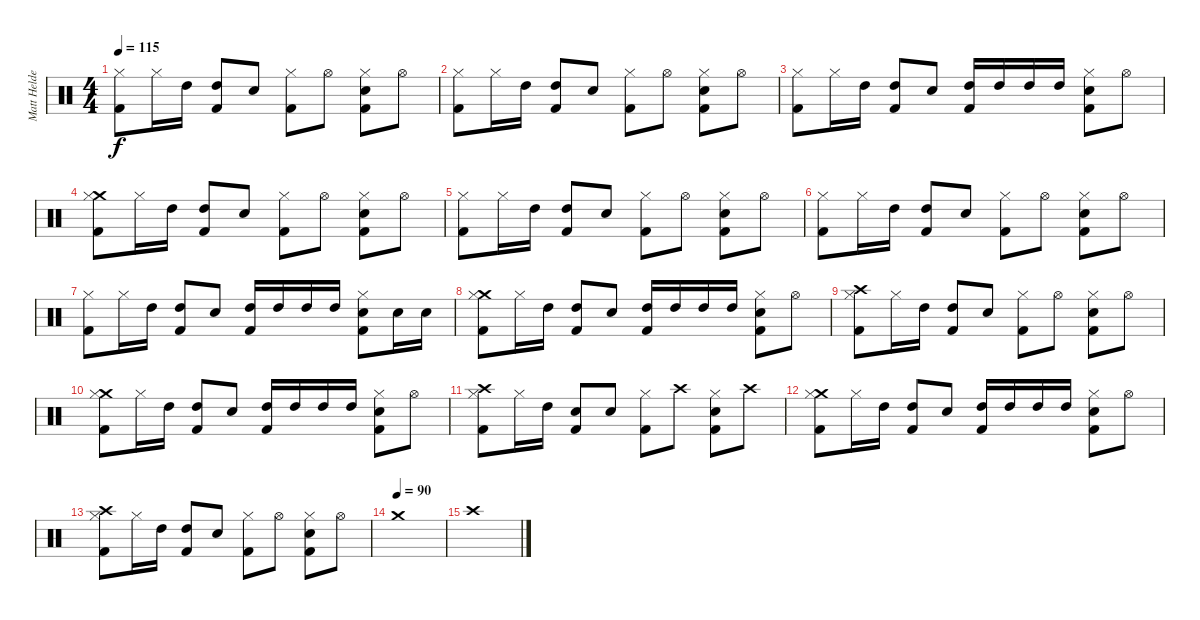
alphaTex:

\track ("Matt Helders (Percussion)" "Matt Helde") {instrument percussion}
\staff {score}
\articulation defaults
\ts (4 4)
\tempo 115
\clef neutral
\ks c
("Hi-Hat (closed)" "Kick (hit) 2").8{dy f} "Hi-Hat (closed)".16 "High Tom (hit)".16 ("High Tom (hit)" "Kick (hit) 2").8 "Snare (hit) 2".8 ("Hi-Hat (closed)" "Kick (hit) 2").8 "Hi-Hat (open)".8 ("Hi-Hat (closed)" "Snare (hit) 2" "Kick (hit) 2").8 "Hi-Hat (open)".8 |
("Hi-Hat (closed)" "Kick (hit) 2").8 "Hi-Hat (closed)".16 "High Tom (hit)".16 ("High Tom (hit)" "Kick (hit) 2").8 "Snare (hit) 2".8 ("Hi-Hat (closed)" "Kick (hit) 2").8 "Hi-Hat (open)".8 ("Hi-Hat (closed)" "Snare (hit) 2" "Kick (hit) 2").8 "Hi-Hat (open)".8 |
("Hi-Hat (closed)" "Kick (hit) 2").8 "Hi-Hat (closed)".16 "High Tom (hit)".16 ("High Tom (hit)" "Kick (hit) 2").8 "Snare (hit) 2".8 ("High Tom (hit)" "Kick (hit) 2").16 "High Tom (hit)".16 "High Tom (hit)".16 "High Tom (hit)".16 ("Hi-Hat (closed)" "Snare (hit) 2" "Kick (hit) 2").8 "Hi-Hat (open)".8 |
("Crash medium (hit)" "Hi-Hat (closed)" "Kick (hit) 2").8 "Hi-Hat (closed)".16 "High Tom (hit)".16 ("High Tom (hit)" "Kick (hit) 2").8 "Snare (hit) 2".8 ("Hi-Hat (closed)" "Kick (hit) 2").8 "Hi-Hat (open)".8 ("Hi-Hat (closed)" "Snare (hit) 2" "Kick (hit) 2").8 "Hi-Hat (open)".8 |
("Hi-Hat (closed)" "Kick (hit) 2").8 "Hi-Hat (closed)".16 "High Tom (hit)".16 ("High Tom (hit)" "Kick (hit) 2").8 "Snare (hit) 2".8 ("Hi-Hat (closed)" "Kick (hit) 2").8 "Hi-Hat (open)".8 ("Hi-Hat (closed)" "Snare (hit) 2" "Kick (hit) 2").8 "Hi-Hat (open)".8 |
("Hi-Hat (closed)" "Kick (hit) 2").8 "Hi-Hat (closed)".16 "High Tom (hit)".16 ("High Tom (hit)" "Kick (hit) 2").8 "Snare (hit) 2".8 ("Hi-Hat (closed)" "Kick (hit) 2").8 "Hi-Hat (open)".8 ("Hi-Hat (closed)" "Snare (hit) 2" "Kick (hit) 2").8 "Hi-Hat (open)".8 |
("Hi-Hat (closed)" "Kick (hit) 2").8 "Hi-Hat (closed)".16 "High Tom (hit)".16 ("High Tom (hit)" "Kick (hit) 2").8 "Snare (hit) 2".8 ("High Tom (hit)" "Kick (hit) 2").16 "High Tom (hit)".16 "High Tom (hit)".16 "High Tom (hit)".16 ("Hi-Hat (closed)" "Snare (hit) 2" "Kick (hit) 2").8 "Snare (hit) 2".16 "Snare (hit) 2".16 |
("Crash medium (hit)" "Hi-Hat (closed)" "Kick (hit) 2").8 "Hi-Hat (closed)".16 "High Tom (hit)".16 ("High Tom (hit)" "Kick (hit) 2").8 "Snare (hit) 2".8 ("High Tom (hit)" "Kick (hit) 2").16 "High Tom (hit)".16 "High Tom (hit)".16 "High Tom (hit)".16 ("Hi-Hat (closed)" "Snare (hit) 2" "Kick (hit) 2").8 "Hi-Hat (open)".8 |
("Crash high (hit)" "Hi-Hat (closed)" "Kick (hit) 2").8 "Hi-Hat (closed)".16 "High Tom (hit)".16 ("High Tom (hit)" "Kick (hit) 2").8 "Snare (hit) 2".8 ("Hi-Hat (closed)" "Kick (hit) 2").8 "Hi-Hat (open)".8 ("Hi-Hat (closed)" "Snare (hit) 2" "Kick (hit) 2").8 "Hi-Hat (open)".8 |
("Crash medium (hit)" "Hi-Hat (closed)" "Kick (hit) 2").8 "Hi-Hat (closed)".16 "High Tom (hit)".16 ("High Tom (hit)" "Kick (hit) 2").8 "Snare (hit) 2".8 ("High Tom (hit)" "Kick (hit) 2").16 "High Tom (hit)".16 "High Tom (hit)".16 "High Tom (hit)".16 ("Hi-Hat (closed)" "Snare (hit) 2" "Kick (hit) 2").8 "Hi-Hat (open)".8 |
("Crash high (hit)" "Hi-Hat (closed)" "Kick (hit) 2").8 "Hi-Hat (closed)".16 "High Tom (hit)".16 ("Snare (hit) 2" "Kick (hit) 2").8 "Snare (hit) 2".8 ("Hi-Hat (closed)" "Kick (hit) 2").8 "Crash high (hit)".8 ("Hi-Hat (closed)" "Snare (hit) 2" "Kick (hit) 2").8 "Crash high (hit)".8 |
("Crash medium (hit)" "Hi-Hat (closed)" "Kick (hit) 2").8 "Hi-Hat (closed)".16 "High Tom (hit)".16 ("High Tom (hit)" "Kick (hit) 2").8 "Snare (hit) 2".8 ("High Tom (hit)" "Kick (hit) 2").16 "High Tom (hit)".16 "High Tom (hit)".16 "High Tom (hit)".16 ("Hi-Hat (closed)" "Snare (hit) 2" "Kick (hit) 2").8 "Hi-Hat (open)".8 |
("Crash high (hit)" "Hi-Hat (closed)" "Kick (hit) 2").8 "Hi-Hat (closed)".16 "High Tom (hit)".16 ("High Tom (hit)" "Kick (hit) 2").8 "Snare (hit) 2".8 ("Hi-Hat (closed)" "Kick (hit) 2").8 "Hi-Hat (open)".8 ("Hi-Hat (closed)" "Snare (hit) 2" "Kick (hit) 2").8 "Hi-Hat (open)".8 |
\tempo (90)
"Crash medium (hit)".1 |
"Crash high (hit)".1
